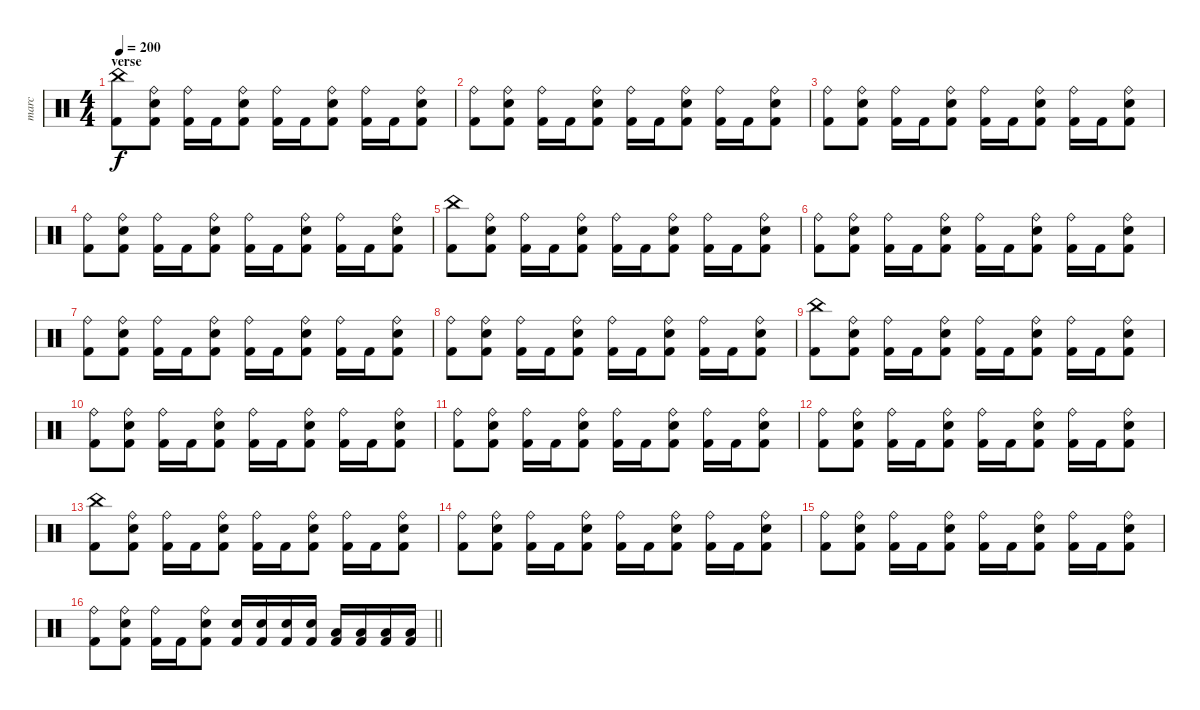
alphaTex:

\track ("marc" "marc") {instrument percussion}
\staff {score}
\articulation defaults
\ts (4 4)
\section ("" "verse")
\tempo 200
\clef neutral
\ks c
("China (hit)" "Kick (hit) 2").8{dy f} ("Ride (bell)" "Snare (hit) 2" "Kick (hit) 2").8 ("Ride (bell)" "Kick (hit) 2").16 "Kick (hit) 2".16 ("Ride (bell)" "Snare (hit) 2" "Kick (hit) 2").8 ("Ride (bell)" "Kick (hit) 2").16 "Kick (hit) 2".16 ("Ride (bell)" "Snare (hit) 2" "Kick (hit) 2").8 ("Ride (bell)" "Kick (hit) 2").16 "Kick (hit) 2".16 ("Ride (bell)" "Snare (hit) 2" "Kick (hit) 2").8 |
("Ride (bell)" "Kick (hit) 2").8 ("Ride (bell)" "Snare (hit) 2" "Kick (hit) 2").8 ("Ride (bell)" "Kick (hit) 2").16 "Kick (hit) 2".16 ("Ride (bell)" "Snare (hit) 2" "Kick (hit) 2").8 ("Ride (bell)" "Kick (hit) 2").16 "Kick (hit) 2".16 ("Ride (bell)" "Snare (hit) 2" "Kick (hit) 2").8 ("Ride (bell)" "Kick (hit) 2").16 "Kick (hit) 2".16 ("Ride (bell)" "Snare (hit) 2" "Kick (hit) 2").8 |
("Ride (bell)" "Kick (hit) 2").8 ("Ride (bell)" "Snare (hit) 2" "Kick (hit) 2").8 ("Ride (bell)" "Kick (hit) 2").16 "Kick (hit) 2".16 ("Ride (bell)" "Snare (hit) 2" "Kick (hit) 2").8 ("Ride (bell)" "Kick (hit) 2").16 "Kick (hit) 2".16 ("Ride (bell)" "Snare (hit) 2" "Kick (hit) 2").8 ("Ride (bell)" "Kick (hit) 2").16 "Kick (hit) 2".16 ("Ride (bell)" "Snare (hit) 2" "Kick (hit) 2").8 |
("Ride (bell)" "Kick (hit) 2").8 ("Ride (bell)" "Snare (hit) 2" "Kick (hit) 2").8 ("Ride (bell)" "Kick (hit) 2").16 "Kick (hit) 2".16 ("Ride (bell)" "Snare (hit) 2" "Kick (hit) 2").8 ("Ride (bell)" "Kick (hit) 2").16 "Kick (hit) 2".16 ("Ride (bell)" "Snare (hit) 2" "Kick (hit) 2").8 ("Ride (bell)" "Kick (hit) 2").16 "Kick (hit) 2".16 ("Ride (bell)" "Snare (hit) 2" "Kick (hit) 2").8 |
("China (hit)" "Kick (hit) 2").8 ("Ride (bell)" "Snare (hit) 2" "Kick (hit) 2").8 ("Ride (bell)" "Kick (hit) 2").16 "Kick (hit) 2".16 ("Ride (bell)" "Snare (hit) 2" "Kick (hit) 2").8 ("Ride (bell)" "Kick (hit) 2").16 "Kick (hit) 2".16 ("Ride (bell)" "Snare (hit) 2" "Kick (hit) 2").8 ("Ride (bell)" "Kick (hit) 2").16 "Kick (hit) 2".16 ("Ride (bell)" "Snare (hit) 2" "Kick (hit) 2").8 |
("Ride (bell)" "Kick (hit) 2").8 ("Ride (bell)" "Snare (hit) 2" "Kick (hit) 2").8 ("Ride (bell)" "Kick (hit) 2").16 "Kick (hit) 2".16 ("Ride (bell)" "Snare (hit) 2" "Kick (hit) 2").8 ("Ride (bell)" "Kick (hit) 2").16 "Kick (hit) 2".16 ("Ride (bell)" "Snare (hit) 2" "Kick (hit) 2").8 ("Ride (bell)" "Kick (hit) 2").16 "Kick (hit) 2".16 ("Ride (bell)" "Snare (hit) 2" "Kick (hit) 2").8 |
("Ride (bell)" "Kick (hit) 2").8 ("Ride (bell)" "Snare (hit) 2" "Kick (hit) 2").8 ("Ride (bell)" "Kick (hit) 2").16 "Kick (hit) 2".16 ("Ride (bell)" "Snare (hit) 2" "Kick (hit) 2").8 ("Ride (bell)" "Kick (hit) 2").16 "Kick (hit) 2".16 ("Ride (bell)" "Snare (hit) 2" "Kick (hit) 2").8 ("Ride (bell)" "Kick (hit) 2").16 "Kick (hit) 2".16 ("Ride (bell)" "Snare (hit) 2" "Kick (hit) 2").8 |
("Ride (bell)" "Kick (hit) 2").8 ("Ride (bell)" "Snare (hit) 2" "Kick (hit) 2").8 ("Ride (bell)" "Kick (hit) 2").16 "Kick (hit) 2".16 ("Ride (bell)" "Snare (hit) 2" "Kick (hit) 2").8 ("Ride (bell)" "Kick (hit) 2").16 "Kick (hit) 2".16 ("Ride (bell)" "Snare (hit) 2" "Kick (hit) 2").8 ("Ride (bell)" "Kick (hit) 2").16 "Kick (hit) 2".16 ("Ride (bell)" "Snare (hit) 2" "Kick (hit) 2").8 |
("China (hit)" "Kick (hit) 2").8 ("Ride (bell)" "Snare (hit) 2" "Kick (hit) 2").8 ("Ride (bell)" "Kick (hit) 2").16 "Kick (hit) 2".16 ("Ride (bell)" "Snare (hit) 2" "Kick (hit) 2").8 ("Ride (bell)" "Kick (hit) 2").16 "Kick (hit) 2".16 ("Ride (bell)" "Snare (hit) 2" "Kick (hit) 2").8 ("Ride (bell)" "Kick (hit) 2").16 "Kick (hit) 2".16 ("Ride (bell)" "Snare (hit) 2" "Kick (hit) 2").8 |
("Ride (bell)" "Kick (hit) 2").8 ("Ride (bell)" "Snare (hit) 2" "Kick (hit) 2").8 ("Ride (bell)" "Kick (hit) 2").16 "Kick (hit) 2".16 ("Ride (bell)" "Snare (hit) 2" "Kick (hit) 2").8 ("Ride (bell)" "Kick (hit) 2").16 "Kick (hit) 2".16 ("Ride (bell)" "Snare (hit) 2" "Kick (hit) 2").8 ("Ride (bell)" "Kick (hit) 2").16 "Kick (hit) 2".16 ("Ride (bell)" "Snare (hit) 2" "Kick (hit) 2").8 |
("Ride (bell)" "Kick (hit) 2").8 ("Ride (bell)" "Snare (hit) 2" "Kick (hit) 2").8 ("Ride (bell)" "Kick (hit) 2").16 "Kick (hit) 2".16 ("Ride (bell)" "Snare (hit) 2" "Kick (hit) 2").8 ("Ride (bell)" "Kick (hit) 2").16 "Kick (hit) 2".16 ("Ride (bell)" "Snare (hit) 2" "Kick (hit) 2").8 ("Ride (bell)" "Kick (hit) 2").16 "Kick (hit) 2".16 ("Ride (bell)" "Snare (hit) 2" "Kick (hit) 2").8 |
("Ride (bell)" "Kick (hit) 2").8 ("Ride (bell)" "Snare (hit) 2" "Kick (hit) 2").8 ("Ride (bell)" "Kick (hit) 2").16 "Kick (hit) 2".16 ("Ride (bell)" "Snare (hit) 2" "Kick (hit) 2").8 ("Ride (bell)" "Kick (hit) 2").16 "Kick (hit) 2".16 ("Ride (bell)" "Snare (hit) 2" "Kick (hit) 2").8 ("Ride (bell)" "Kick (hit) 2").16 "Kick (hit) 2".16 ("Ride (bell)" "Snare (hit) 2" "Kick (hit) 2").8 |
("China (hit)" "Kick (hit) 2").8 ("Ride (bell)" "Snare (hit) 2" "Kick (hit) 2").8 ("Ride (bell)" "Kick (hit) 2").16 "Kick (hit) 2".16 ("Ride (bell)" "Snare (hit) 2" "Kick (hit) 2").8 ("Ride (bell)" "Kick (hit) 2").16 "Kick (hit) 2".16 ("Ride (bell)" "Snare (hit) 2" "Kick (hit) 2").8 ("Ride (bell)" "Kick (hit) 2").16 "Kick (hit) 2".16 ("Ride (bell)" "Snare (hit) 2" "Kick (hit) 2").8 |
("Ride (bell)" "Kick (hit) 2").8 ("Ride (bell)" "Snare (hit) 2" "Kick (hit) 2").8 ("Ride (bell)" "Kick (hit) 2").16 "Kick (hit) 2".16 ("Ride (bell)" "Snare (hit) 2" "Kick (hit) 2").8 ("Ride (bell)" "Kick (hit) 2").16 "Kick (hit) 2".16 ("Ride (bell)" "Snare (hit) 2" "Kick (hit) 2").8 ("Ride (bell)" "Kick (hit) 2").16 "Kick (hit) 2".16 ("Ride (bell)" "Snare (hit) 2" "Kick (hit) 2").8 |
("Ride (bell)" "Kick (hit) 2").8 ("Ride (bell)" "Snare (hit) 2" "Kick (hit) 2").8 ("Ride (bell)" "Kick (hit) 2").16 "Kick (hit) 2".16 ("Ride (bell)" "Snare (hit) 2" "Kick (hit) 2").8 ("Ride (bell)" "Kick (hit) 2").16 "Kick (hit) 2".16 ("Ride (bell)" "Snare (hit) 2" "Kick (hit) 2").8 ("Ride (bell)" "Kick (hit) 2").16 "Kick (hit) 2".16 ("Ride (bell)" "Snare (hit) 2" "Kick (hit) 2").8 |
\barLineRight lightlight
("Ride (bell)" "Kick (hit) 2").8 ("Ride (bell)" "Snare (hit) 2" "Kick (hit) 2").8 ("Ride (bell)" "Kick (hit) 2").16 "Kick (hit) 2".16 ("Ride (bell)" "Snare (hit) 2" "Kick (hit) 2").8 ("Snare (hit) 2" "Kick (hit) 2").16 ("Snare (hit) 2" "Kick (hit) 2").16 ("Snare (hit) 2" "Kick (hit) 2").16 ("Snare (hit) 2" "Kick (hit) 2").16 ("Low Tom (hit)" "Kick (hit) 2").16 ("Low Tom (hit)" "Kick (hit) 2").16 ("Low Tom (hit)" "Kick (hit) 2").16 ("Low Tom (hit)" "Kick (hit) 2").16
